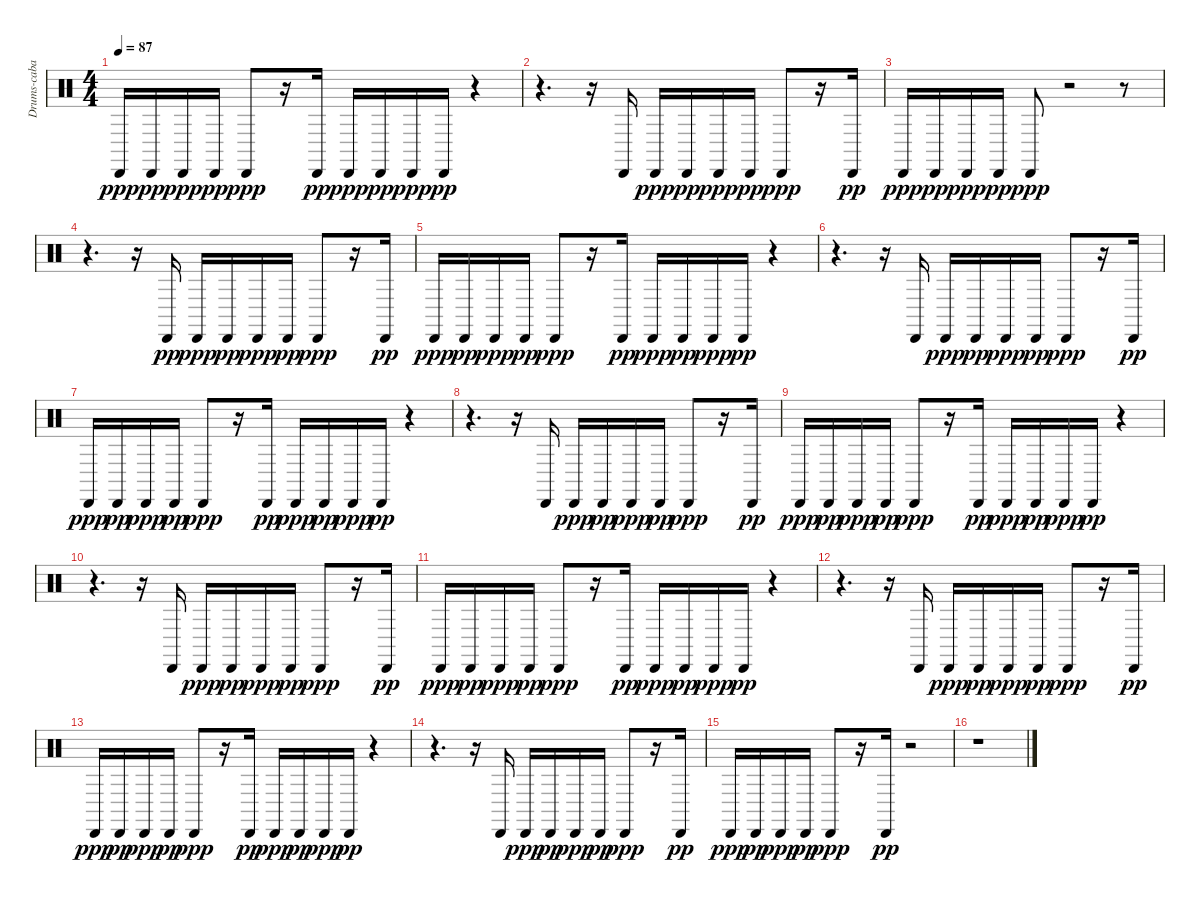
\track ("Drums-cabasa" "Drums-caba") {instrument percussion}
\staff {score}
\articulation defaults
\ts (4 4)
\tempo 87
\clef neutral
\ks c "Cabasa (hit)".16{dy ppp} "Cabasa (hit)".16{dy pp} "Cabasa (hit)".16{dy ppp} "Cabasa (hit)".16{dy pp} "Cabasa (hit)".8{dy ppp}
r.16 "Cabasa (hit)".16{dy pp} "Cabasa (hit)".16{dy ppp} "Cabasa (hit)".16{dy pp} "Cabasa (hit)".16{dy ppp} "Cabasa (hit)".16{dy pp} r.4 |
r.4{d} r.16 "Cabasa (hit)".16 "Cabasa (hit)".16{dy ppp} "Cabasa (hit)".16{dy pp} "Cabasa (hit)".16{dy ppp} "Cabasa (hit)".16{dy pp} "Cabasa (hit)".8{dy ppp} r.16 "Cabasa (hit)".16{dy pp} |
"Cabasa (hit)".16{dy ppp} "Cabasa (hit)".16{dy pp} "Cabasa (hit)".16{dy ppp} "Cabasa (hit)".16{dy pp} "Cabasa (hit)".8{dy ppp} r.2 r.8 |
r.4{d} r.16 "Cabasa (hit)".16{dy pp} "Cabasa (hit)".16{dy ppp} "Cabasa (hit)".16{dy pp} "Cabasa (hit)".16{dy ppp} "Cabasa (hit)".16{dy pp} "Cabasa (hit)".8{dy ppp} r.16 "Cabasa (hit)".16{dy pp} |
"Cabasa (hit)".16{dy ppp} "Cabasa (hit)".16{dy pp} "Cabasa (hit)".16{dy ppp} "Cabasa (hit)".16{dy pp} "Cabasa (hit)".8{dy ppp} r.16 "Cabasa (hit)".16{dy pp} "Cabasa (hit)".16{dy ppp} "Cabasa (hit)".16{dy pp} "Cabasa (hit)".16{dy ppp} "Cabasa (hit)".16{dy pp} r.4 |
r.4{d} r.16 "Cabasa (hit)".16 "Cabasa (hit)".16{dy ppp} "Cabasa (hit)".16{dy pp} "Cabasa (hit)".16{dy ppp} "Cabasa (hit)".16{dy pp} "Cabasa (hit)".8{dy ppp} r.16 "Cabasa (hit)".16{dy pp} |
"Cabasa (hit)".16{dy ppp} "Cabasa (hit)".16{dy pp} "Cabasa (hit)".16{dy ppp} "Cabasa (hit)".16{dy pp} "Cabasa (hit)".8{dy ppp} r.16 "Cabasa (hit)".16{dy pp} "Cabasa (hit)".16{dy ppp} "Cabasa (hit)".16{dy pp} "Cabasa (hit)".16{dy ppp} "Cabasa (hit)".16{dy pp} r.4 |
r.4{d} r.16 "Cabasa (hit)".16 "Cabasa (hit)".16{dy ppp} "Cabasa (hit)".16{dy pp} "Cabasa (hit)".16{dy ppp} "Cabasa (hit)".16{dy pp} "Cabasa (hit)".8{dy ppp} r.16 "Cabasa (hit)".16{dy pp} |
"Cabasa (hit)".16{dy ppp} "Cabasa (hit)".16{dy pp} "Cabasa (hit)".16{dy ppp} "Cabasa (hit)".16{dy pp} "Cabasa (hit)".8{dy ppp} r.16 "Cabasa (hit)".16{dy pp} "Cabasa (hit)".16{dy ppp} "Cabasa (hit)".16{dy pp} "Cabasa (hit)".16{dy ppp} "Cabasa (hit)".16{dy pp} r.4 |
r.4{d} r.16 "Cabasa (hit)".16 "Cabasa (hit)".16{dy ppp} "Cabasa (hit)".16{dy pp} "Cabasa (hit)".16{dy ppp} "Cabasa (hit)".16{dy pp} "Cabasa (hit)".8{dy ppp} r.16 "Cabasa (hit)".16{dy pp} |
"Cabasa (hit)".16{dy ppp} "Cabasa (hit)".16{dy pp} "Cabasa (hit)".16{dy ppp} "Cabasa (hit)".16{dy pp} "Cabasa (hit)".8{dy ppp} r.16 "Cabasa (hit)".16{dy pp} "Cabasa (hit)".16{dy ppp} "Cabasa (hit)".16{dy pp} "Cabasa (hit)".16{dy ppp} "Cabasa (hit)".16{dy pp} r.4 |
r.4{d} r.16 "Cabasa (hit)".16 "Cabasa (hit)".16{dy ppp} "Cabasa (hit)".16{dy pp} "Cabasa (hit)".16{dy ppp} "Cabasa (hit)".16{dy pp} "Cabasa (hit)".8{dy ppp} r.16 "Cabasa (hit)".16{dy pp} |
"Cabasa (hit)".16{dy ppp} "Cabasa (hit)".16{dy pp} "Cabasa (hit)".16{dy ppp} "Cabasa (hit)".16{dy pp} "Cabasa (hit)".8{dy ppp} r.16 "Cabasa (hit)".16{dy pp} "Cabasa (hit)".16{dy ppp} "Cabasa (hit)".16{dy pp} "Cabasa (hit)".16{dy ppp} "Cabasa (hit)".16{dy pp} r.4 |
r.4{d} r.16 "Cabasa (hit)".16 "Cabasa (hit)".16{dy ppp} "Cabasa (hit)".16{dy pp} "Cabasa (hit)".16{dy ppp} "Cabasa (hit)".16{dy pp} "Cabasa (hit)".8{dy ppp} r.16 "Cabasa (hit)".16{dy pp} |
"Cabasa (hit)".16{dy ppp} "Cabasa (hit)".16{dy pp} "Cabasa (hit)".16{dy ppp} "Cabasa (hit)".16{dy pp} "Cabasa (hit)".8{dy ppp} r.16 "Cabasa (hit)".16{dy pp} r.2 |
r.1
